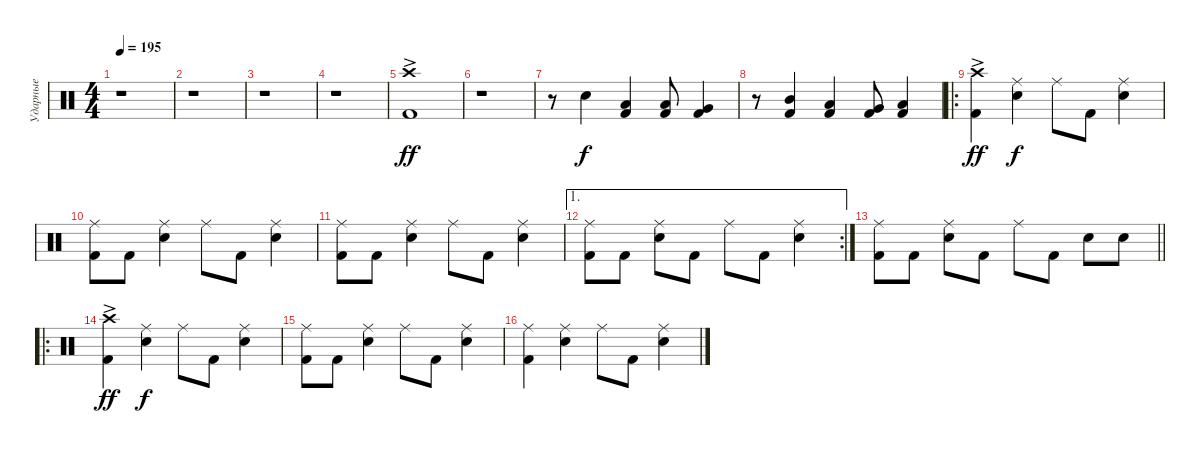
\track ("Ударные" "Ударные") {instrument percussion}
\staff {score}
\articulation defaults
\ts (4 4)
\tempo 195
\clef neutral
\ks c
r.1{dy ff} |
r.1 |
r.1 |
r.1 |
("Kick (hit) 2" "Crash high (hit)"{ac}).1 |
r.1 |
r.8 "Snare (hit) 2".4{dy f} ("Kick (hit) 2" "Low Floor Tom (hit)").4 ("Kick (hit) 2" "Low Tom (hit)").8 ("Kick (hit) 2" "Very Low Tom (hit)").4 |
r.8 ("Kick (hit) 2" "Mid Tom (hit)").4 ("Kick (hit) 2" "Low Tom (hit)").4 ("Kick (hit) 2" "Very Low Tom (hit)").8 ("Kick (hit) 2" "Low Floor Tom (hit)").4 |
\ro
("Crash high (hit)"{ac} "Kick (hit) 2").4{dy ff} ("Ride (middle)" "Snare (hit) 2").4{dy f} "Ride (middle)".8 "Kick (hit) 2".8 ("Ride (middle)" "Snare (hit) 2").4 |
("Ride (middle)" "Kick (hit) 2").8 "Kick (hit) 2".8 ("Ride (middle)" "Snare (hit) 2").4 "Ride (middle)".8 "Kick (hit) 2".8 ("Ride (middle)" "Snare (hit) 2").4 |
("Ride (middle)" "Kick (hit) 2").8 "Kick (hit) 2".8 ("Ride (middle)" "Snare (hit) 2").4 "Ride (middle)".8 "Kick (hit) 2".8 ("Ride (middle)" "Snare (hit) 2").4 |
\ae 1
\rc 2
("Ride (middle)" "Kick (hit) 2").8 "Kick (hit) 2".8 ("Ride (middle)" "Snare (hit) 2").8 "Kick (hit) 2".8 "Ride (middle)".8 "Kick (hit) 2".8 ("Ride (middle)" "Snare (hit) 2").4 |
\barLineRight lightlight
("Ride (middle)" "Kick (hit) 2").8 "Kick (hit) 2".8 ("Ride (middle)" "Snare (hit) 2").8 "Kick (hit) 2".8 "Ride (middle)".8 "Kick (hit) 2".8 "Snare (hit) 2".8 "Snare (hit) 2".8 |
\ro
("Crash high (hit)"{ac} "Kick (hit) 2").4{dy ff} ("Ride (middle)" "Snare (hit) 2").4{dy f} "Ride (middle)".8 "Kick (hit) 2".8 ("Ride (middle)" "Snare (hit) 2").4 |
("Ride (middle)" "Kick (hit) 2").8 "Kick (hit) 2".8 ("Ride (middle)" "Snare (hit) 2").4 "Ride (middle)".8 "Kick (hit) 2".8 ("Ride (middle)" "Snare (hit) 2").4 |
("Ride (middle)" "Kick (hit) 2").4 ("Ride (middle)" "Snare (hit) 2").4 "Ride (middle)".8 "Kick (hit) 2".8 ("Ride (middle)" "Snare (hit) 2").4
